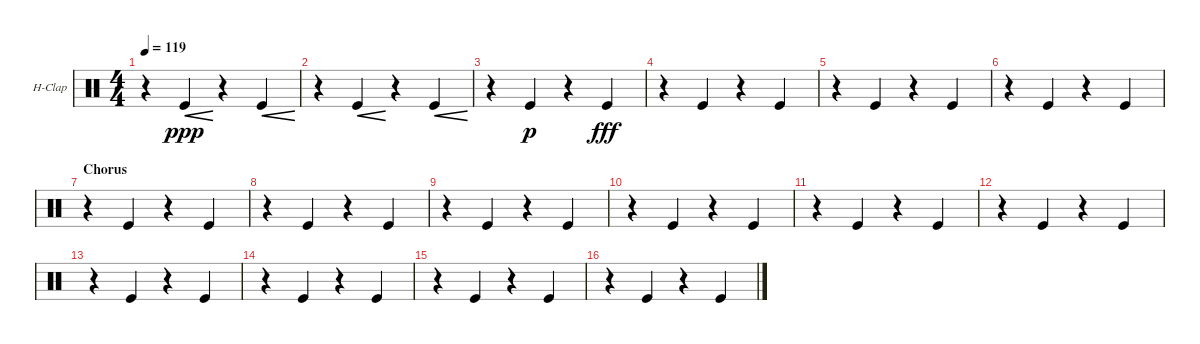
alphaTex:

\defaultSystemsLayout 4
\bracketExtendMode groupsimilarinstruments
\firstSystemTrackNameOrientation horizontal
\otherSystemsTrackNameOrientation horizontal
\track ("Hand Clap" "H-Clap") {instrument percussion}
\staff {score}
\articulation defaults
\ts (4 4)
\tempo 119
\clef neutral
\scale
0.333333
\ks c
r.4{dy ppp} "Kick (hit)".4{cre} r.4 "Kick (hit)".4{cre} |
\scale
0.333333 r.4 "Kick (hit)".4{cre} r.4 "Kick (hit)".4{cre} |
\scale
0.333333 r.4 "Kick (hit)".4{dy p} r.4 "Kick (hit)".4{dy fff} |
\scale
0.333333 r.4 "Kick (hit)".4 r.4 "Kick (hit)".4 |
\scale
0.333333 r.4 "Kick (hit)".4 r.4 "Kick (hit)".4 |
\scale
0.333333 r.4 "Kick (hit)".4 r.4 "Kick (hit)".4 |
\section ("" "Chorus")
\scale
0.333333 r.4 "Kick (hit)".4 r.4 "Kick (hit)".4 |
\scale
0.333333 r.4 "Kick (hit)".4 r.4 "Kick (hit)".4 |
\scale
0.333333 r.4 "Kick (hit)".4 r.4 "Kick (hit)".4 |
\scale
0.333333 r.4 "Kick (hit)".4 r.4 "Kick (hit)".4 |
\scale
0.333333 r.4 "Kick (hit)".4 r.4 "Kick (hit)".4 |
\scale
0.333333 r.4 "Kick (hit)".4 r.4 "Kick (hit)".4 |
\scale
0.333333 r.4 "Kick (hit)".4 r.4 "Kick (hit)".4 |
\scale
0.333333 r.4 "Kick (hit)".4 r.4 "Kick (hit)".4 |
\scale
0.333333 r.4 "Kick (hit)".4 r.4 "Kick (hit)".4 |
\scale
0.333333 r.4 "Kick (hit)".4 r.4 "Kick (hit)".4
